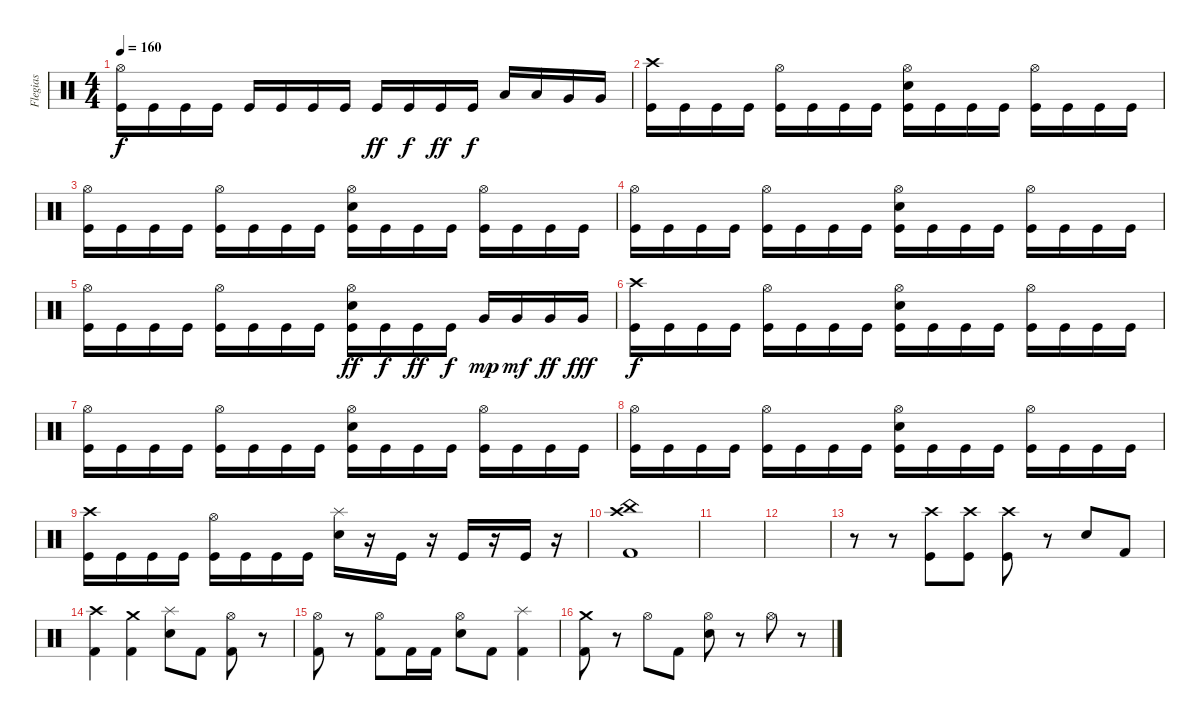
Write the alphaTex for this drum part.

\track ("Flegias" "Flegias") {instrument percussion}
\staff {score}
\articulation defaults
\ts (4 4)
\tempo 160
\clef neutral
\ks c
("Hi-Hat (open)" "Kick (hit)").16{dy f} "Kick (hit)".16 "Kick (hit)".16 "Kick (hit)".16 "Kick (hit)".16 "Kick (hit)".16 "Kick (hit)".16 "Kick (hit)".16 "Kick (hit)".16{dy ff} "Kick (hit)".16{dy f} "Kick (hit)".16{dy ff} "Kick (hit)".16{dy f} "Low Tom (hit)".16 "Low Tom (hit)".16 "Very Low Tom (hit)".16 "Very Low Tom (hit)".16 |
("Crash high (hit)" "Kick (hit)").16 "Kick (hit)".16 "Kick (hit)".16 "Kick (hit)".16 ("Hi-Hat (open)" "Kick (hit)").16 "Kick (hit)".16 "Kick (hit)".16 "Kick (hit)".16 ("Hi-Hat (open)" "Snare (hit) 2" "Kick (hit)").16 "Kick (hit)".16 "Kick (hit)".16 "Kick (hit)".16 ("Hi-Hat (open)" "Kick (hit)").16 "Kick (hit)".16 "Kick (hit)".16 "Kick (hit)".16 |
("Hi-Hat (open)" "Kick (hit)").16 "Kick (hit)".16 "Kick (hit)".16 "Kick (hit)".16 ("Hi-Hat (open)" "Kick (hit)").16 "Kick (hit)".16 "Kick (hit)".16 "Kick (hit)".16 ("Hi-Hat (open)" "Snare (hit) 2" "Kick (hit)").16 "Kick (hit)".16 "Kick (hit)".16 "Kick (hit)".16 ("Hi-Hat (open)" "Kick (hit)").16 "Kick (hit)".16 "Kick (hit)".16 "Kick (hit)".16 |
("Hi-Hat (open)" "Kick (hit)").16 "Kick (hit)".16 "Kick (hit)".16 "Kick (hit)".16 ("Hi-Hat (open)" "Kick (hit)").16 "Kick (hit)".16 "Kick (hit)".16 "Kick (hit)".16 ("Hi-Hat (open)" "Snare (hit) 2" "Kick (hit)").16 "Kick (hit)".16 "Kick (hit)".16 "Kick (hit)".16 ("Hi-Hat (open)" "Kick (hit)").16 "Kick (hit)".16 "Kick (hit)".16 "Kick (hit)".16 |
("Hi-Hat (open)" "Kick (hit)").16 "Kick (hit)".16 "Kick (hit)".16 "Kick (hit)".16 ("Hi-Hat (open)" "Kick (hit)").16 "Kick (hit)".16 "Kick (hit)".16 "Kick (hit)".16 ("Hi-Hat (open)" "Snare (hit) 2" "Kick (hit)").16{dy ff} "Kick (hit)".16{dy f} "Kick (hit)".16{dy ff} "Kick (hit)".16{dy f} "Very Low Tom (hit)".16{dy mp} "Very Low Tom (hit)".16{dy mf} "Very Low Tom (hit)".16{dy ff} "Very Low Tom (hit)".16{dy fff} |
("Crash high (hit)" "Kick (hit)").16{dy f} "Kick (hit)".16 "Kick (hit)".16 "Kick (hit)".16 ("Hi-Hat (open)" "Kick (hit)").16 "Kick (hit)".16 "Kick (hit)".16 "Kick (hit)".16 ("Hi-Hat (open)" "Snare (hit) 2" "Kick (hit)").16 "Kick (hit)".16 "Kick (hit)".16 "Kick (hit)".16 ("Hi-Hat (open)" "Kick (hit)").16 "Kick (hit)".16 "Kick (hit)".16 "Kick (hit)".16 |
("Hi-Hat (open)" "Kick (hit)").16 "Kick (hit)".16 "Kick (hit)".16 "Kick (hit)".16 ("Hi-Hat (open)" "Kick (hit)").16 "Kick (hit)".16 "Kick (hit)".16 "Kick (hit)".16 ("Hi-Hat (open)" "Snare (hit) 2" "Kick (hit)").16 "Kick (hit)".16 "Kick (hit)".16 "Kick (hit)".16 ("Hi-Hat (open)" "Kick (hit)").16 "Kick (hit)".16 "Kick (hit)".16 "Kick (hit)".16 |
("Hi-Hat (open)" "Kick (hit)").16 "Kick (hit)".16 "Kick (hit)".16 "Kick (hit)".16 ("Hi-Hat (open)" "Kick (hit)").16 "Kick (hit)".16 "Kick (hit)".16 "Kick (hit)".16 ("Hi-Hat (open)" "Snare (hit) 2" "Kick (hit)").16 "Kick (hit)".16 "Kick (hit)".16 "Kick (hit)".16 ("Hi-Hat (open)" "Kick (hit)").16 "Kick (hit)".16 "Kick (hit)".16 "Kick (hit)".16 |
("Crash high (hit)" "Kick (hit)").16 "Kick (hit)".16 "Kick (hit)".16 "Kick (hit)".16 ("Hi-Hat (open)" "Kick (hit)").16 "Kick (hit)".16 "Kick (hit)".16 "Kick (hit)".16 ("Splash (hit)" "Snare (hit) 2").16 r.16 "Kick (hit)".16 r.16 "Kick (hit)".16 r.16 "Kick (hit)".16 r.16 |
("China (hit)" "Crash high (hit)" "Kick (hit) 2").1 |
|
|
r.8 r.8 ("Crash high (hit)" "Kick (hit)").8 ("Crash high (hit)" "Kick (hit)").8 ("Crash high (hit)" "Kick (hit)").8 r.8 "Snare (hit) 2".8 "Kick (hit) 2".8 |
("Crash high (hit)" "Kick (hit) 2").4 ("Crash medium (hit)" "Kick (hit) 2").4 ("Splash (hit)" "Snare (hit) 2").8 "Kick (hit) 2".8 ("Hi-Hat (open)" "Kick (hit) 2").8 r.8 |
("Hi-Hat (open)" "Kick (hit) 2").8 r.8 ("Hi-Hat (open)" "Kick (hit) 2").8 "Kick (hit) 2".16 "Kick (hit) 2".16 ("Hi-Hat (open)" "Snare (hit) 2").8 "Kick (hit) 2".8 ("Splash (hit)" "Kick (hit) 2").4 |
("Crash medium (hit)" "Kick (hit) 2").8 r.8 "Hi-Hat (open)".8 "Kick (hit) 2".8 ("Hi-Hat (open)" "Snare (hit) 2").8 r.8 "Hi-Hat (open)".8 r.8
